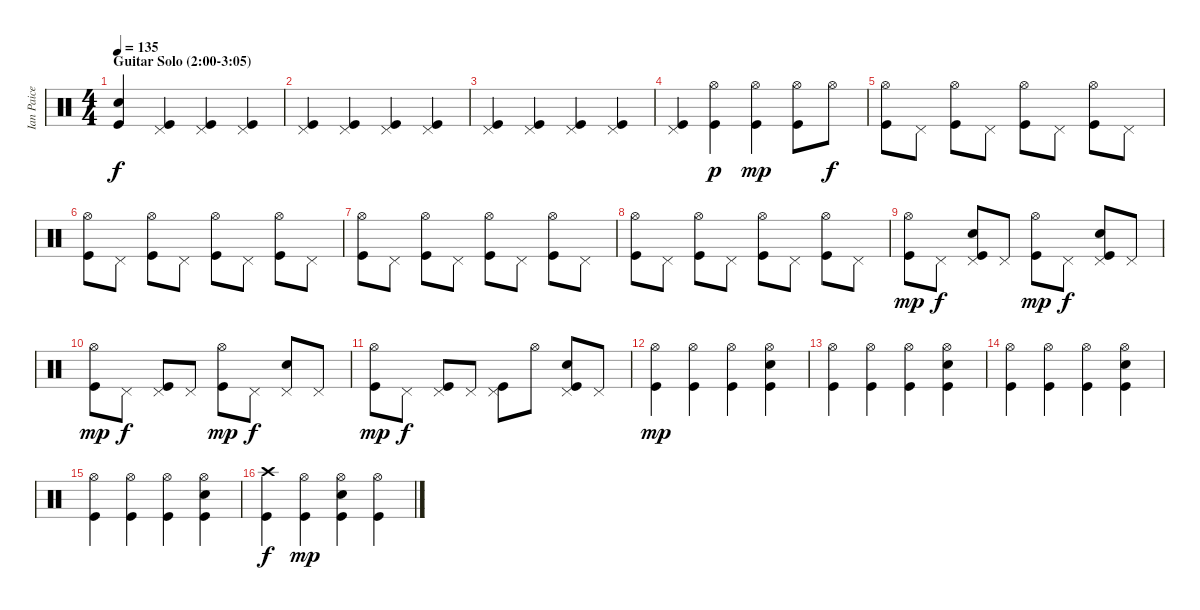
\track ("Ian Paice" "Ian Paice") {instrument percussion}
\staff {score}
\articulation defaults
\ts (4 4)
\section ("" "Guitar Solo (2:00-3:05)")
\tempo 135
\clef neutral
\ks c
("Electric Snare (hit)" "Kick (hit)").4{dy f} ("Pedal Hi-Hat (hit)" "Kick (hit)").4 ("Pedal Hi-Hat (hit)" "Kick (hit)").4 ("Pedal Hi-Hat (hit)" "Kick (hit)").4 |
("Pedal Hi-Hat (hit)" "Kick (hit)").4 ("Pedal Hi-Hat (hit)" "Kick (hit)").4 ("Pedal Hi-Hat (hit)" "Kick (hit)").4 ("Pedal Hi-Hat (hit)" "Kick (hit)").4 |
("Pedal Hi-Hat (hit)" "Kick (hit)").4 ("Pedal Hi-Hat (hit)" "Kick (hit)").4 ("Pedal Hi-Hat (hit)" "Kick (hit)").4 ("Pedal Hi-Hat (hit)" "Kick (hit)").4 |
("Pedal Hi-Hat (hit)" "Kick (hit)").4 ("Hi-Hat (open)" "Kick (hit)").4{dy p} ("Hi-Hat (open)" "Kick (hit)").4{dy mp} ("Hi-Hat (open)" "Kick (hit)").8 "Hi-Hat (open)".8{dy f} |
("Hi-Hat (open)" "Kick (hit)").8 "Pedal Hi-Hat (hit)".8 ("Hi-Hat (open)" "Kick (hit)").8 "Pedal Hi-Hat (hit)".8 ("Hi-Hat (open)" "Kick (hit)").8 "Pedal Hi-Hat (hit)".8 ("Hi-Hat (open)" "Kick (hit)").8 "Pedal Hi-Hat (hit)".8 |
("Hi-Hat (open)" "Kick (hit)").8 "Pedal Hi-Hat (hit)".8 ("Hi-Hat (open)" "Kick (hit)").8 "Pedal Hi-Hat (hit)".8 ("Hi-Hat (open)" "Kick (hit)").8 "Pedal Hi-Hat (hit)".8 ("Hi-Hat (open)" "Kick (hit)").8 "Pedal Hi-Hat (hit)".8 |
("Hi-Hat (open)" "Kick (hit)").8 "Pedal Hi-Hat (hit)".8 ("Hi-Hat (open)" "Kick (hit)").8 "Pedal Hi-Hat (hit)".8 ("Hi-Hat (open)" "Kick (hit)").8 "Pedal Hi-Hat (hit)".8 ("Hi-Hat (open)" "Kick (hit)").8 "Pedal Hi-Hat (hit)".8 |
("Hi-Hat (open)" "Kick (hit)").8 "Pedal Hi-Hat (hit)".8 ("Hi-Hat (open)" "Kick (hit)").8 "Pedal Hi-Hat (hit)".8 ("Hi-Hat (open)" "Kick (hit)").8 "Pedal Hi-Hat (hit)".8 ("Hi-Hat (open)" "Kick (hit)").8 "Pedal Hi-Hat (hit)".8 |
("Hi-Hat (open)" "Kick (hit)").8{dy mp} "Pedal Hi-Hat (hit)".8{dy f} ("Pedal Hi-Hat (hit)" "Electric Snare (hit)" "Kick (hit)").8 "Pedal Hi-Hat (hit)".8 ("Hi-Hat (open)" "Kick (hit)").8{dy mp} "Pedal Hi-Hat (hit)".8{dy f} ("Pedal Hi-Hat (hit)" "Electric Snare (hit)" "Kick (hit)").8 "Pedal Hi-Hat (hit)".8 |
("Hi-Hat (open)" "Kick (hit)").8{dy mp} "Pedal Hi-Hat (hit)".8{dy f} ("Pedal Hi-Hat (hit)" "Kick (hit)").8 "Pedal Hi-Hat (hit)".8 ("Hi-Hat (open)" "Kick (hit)").8{dy mp} "Pedal Hi-Hat (hit)".8{dy f} ("Pedal Hi-Hat (hit)" "Electric Snare (hit)").8 "Pedal Hi-Hat (hit)".8 |
("Hi-Hat (open)" "Kick (hit)").8{dy mp} "Pedal Hi-Hat (hit)".8{dy f} ("Pedal Hi-Hat (hit)" "Kick (hit)").8 "Pedal Hi-Hat (hit)".8 ("Pedal Hi-Hat (hit)" "Kick (hit)").8 "Hi-Hat (open)".8 ("Pedal Hi-Hat (hit)" "Electric Snare (hit)" "Kick (hit)").8 "Pedal Hi-Hat (hit)".8 |
("Hi-Hat (open)" "Kick (hit)").4{dy mp} ("Hi-Hat (open)" "Kick (hit)").4 ("Hi-Hat (open)" "Kick (hit)").4 ("Hi-Hat (open)" "Electric Snare (hit)" "Kick (hit)").4 |
("Hi-Hat (open)" "Kick (hit)").4 ("Hi-Hat (open)" "Kick (hit)").4 ("Hi-Hat (open)" "Kick (hit)").4 ("Hi-Hat (open)" "Electric Snare (hit)" "Kick (hit)").4 |
("Hi-Hat (open)" "Kick (hit)").4 ("Hi-Hat (open)" "Kick (hit)").4 ("Hi-Hat (open)" "Kick (hit)").4 ("Hi-Hat (open)" "Electric Snare (hit)" "Kick (hit)").4 |
("Hi-Hat (open)" "Kick (hit)").4 ("Hi-Hat (open)" "Kick (hit)").4 ("Hi-Hat (open)" "Kick (hit)").4 ("Hi-Hat (open)" "Electric Snare (hit)" "Kick (hit)").4 |
("Crash high (hit)" "Kick (hit)").4{dy f} ("Hi-Hat (open)" "Kick (hit)").4{dy mp} ("Hi-Hat (open)" "Electric Snare (hit)" "Kick (hit)").4 ("Hi-Hat (open)" "Kick (hit)").4
